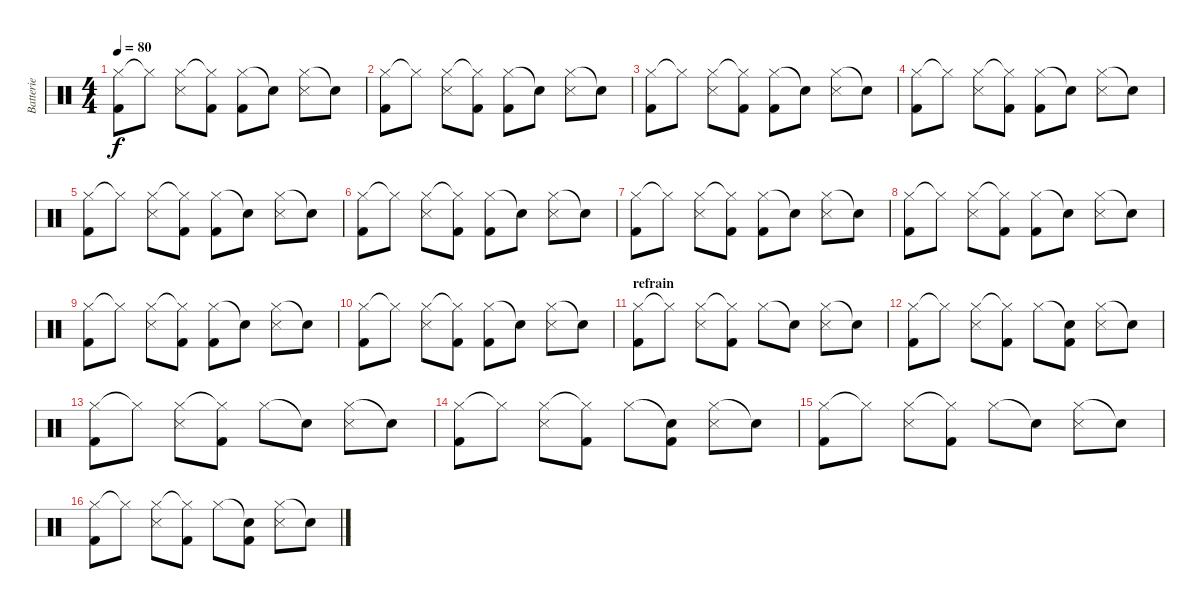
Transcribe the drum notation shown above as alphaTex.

\track ("Batterie" "Batterie") {instrument percussion}
\staff {score}
\articulation defaults
\ts (4 4)
\tempo 80
\clef neutral
\ks c
("Hi-Hat (closed)" "Kick (hit) 2").8{dy f} "Hi-Hat (closed)"{t}.8 ("Hi-Hat (closed)" "Snare (side stick) 3").8 ("Hi-Hat (closed)"{t} "Kick (hit) 2").8 ("Hi-Hat (closed)" "Kick (hit) 2").8 "Snare (hit)"{t}.8 ("Hi-Hat (closed)" "Snare (side stick) 3").8 "Snare (hit)"{t}.8 |
("Hi-Hat (closed)" "Kick (hit) 2").8 "Hi-Hat (closed)"{t}.8 ("Hi-Hat (closed)" "Snare (side stick) 3").8 ("Hi-Hat (closed)"{t} "Kick (hit) 2").8 ("Hi-Hat (closed)" "Kick (hit) 2").8 "Snare (hit)"{t}.8 ("Hi-Hat (closed)" "Snare (side stick) 3").8 "Snare (hit)"{t}.8 |
("Hi-Hat (closed)" "Kick (hit) 2").8 "Hi-Hat (closed)"{t}.8 ("Hi-Hat (closed)" "Snare (side stick) 3").8 ("Hi-Hat (closed)"{t} "Kick (hit) 2").8 ("Hi-Hat (closed)" "Kick (hit) 2").8 "Snare (hit)"{t}.8 ("Hi-Hat (closed)" "Snare (side stick) 3").8 "Snare (hit)"{t}.8 |
("Hi-Hat (closed)" "Kick (hit) 2").8 "Hi-Hat (closed)"{t}.8 ("Hi-Hat (closed)" "Snare (side stick) 3").8 ("Hi-Hat (closed)"{t} "Kick (hit) 2").8 ("Hi-Hat (closed)" "Kick (hit) 2").8 "Snare (hit)"{t}.8 ("Hi-Hat (closed)" "Snare (side stick) 3").8 "Snare (hit)"{t}.8 |
("Hi-Hat (closed)" "Kick (hit) 2").8 "Hi-Hat (closed)"{t}.8 ("Hi-Hat (closed)" "Snare (side stick) 3").8 ("Hi-Hat (closed)"{t} "Kick (hit) 2").8 ("Hi-Hat (closed)" "Kick (hit) 2").8 "Snare (hit)"{t}.8 ("Hi-Hat (closed)" "Snare (side stick) 3").8 "Snare (hit)"{t}.8 |
("Hi-Hat (closed)" "Kick (hit) 2").8 "Hi-Hat (closed)"{t}.8 ("Hi-Hat (closed)" "Snare (side stick) 3").8 ("Hi-Hat (closed)"{t} "Kick (hit) 2").8 ("Hi-Hat (closed)" "Kick (hit) 2").8 "Snare (hit)"{t}.8 ("Hi-Hat (closed)" "Snare (side stick) 3").8 "Snare (hit)"{t}.8 |
("Hi-Hat (closed)" "Kick (hit) 2").8 "Hi-Hat (closed)"{t}.8 ("Hi-Hat (closed)" "Snare (side stick) 3").8 ("Hi-Hat (closed)"{t} "Kick (hit) 2").8 ("Hi-Hat (closed)" "Kick (hit) 2").8 "Snare (hit)"{t}.8 ("Hi-Hat (closed)" "Snare (side stick) 3").8 "Snare (hit)"{t}.8 |
("Hi-Hat (closed)" "Kick (hit) 2").8 "Hi-Hat (closed)"{t}.8 ("Hi-Hat (closed)" "Snare (side stick) 3").8 ("Hi-Hat (closed)"{t} "Kick (hit) 2").8 ("Hi-Hat (closed)" "Kick (hit) 2").8 "Snare (hit)"{t}.8 ("Hi-Hat (closed)" "Snare (side stick) 3").8 "Snare (hit)"{t}.8 |
("Hi-Hat (closed)" "Kick (hit) 2").8 "Hi-Hat (closed)"{t}.8 ("Hi-Hat (closed)" "Snare (side stick) 3").8 ("Hi-Hat (closed)"{t} "Kick (hit) 2").8 ("Hi-Hat (closed)" "Kick (hit) 2").8 "Snare (hit)"{t}.8 ("Hi-Hat (closed)" "Snare (side stick) 3").8 "Snare (hit)"{t}.8 |
("Hi-Hat (closed)" "Kick (hit) 2").8 "Hi-Hat (closed)"{t}.8 ("Hi-Hat (closed)" "Snare (side stick) 3").8 ("Hi-Hat (closed)"{t} "Kick (hit) 2").8 ("Hi-Hat (closed)" "Kick (hit) 2").8 "Snare (hit)"{t}.8 ("Hi-Hat (closed)" "Snare (side stick) 3").8 "Snare (hit)"{t}.8 |
\section ("" "refrain")
("Hi-Hat (closed)" "Kick (hit) 2").8 "Hi-Hat (closed)"{t}.8 ("Hi-Hat (closed)" "Snare (side stick) 3").8 ("Hi-Hat (closed)"{t} "Kick (hit) 2").8 "Hi-Hat (closed)".8 "Snare (hit)"{t}.8 ("Hi-Hat (closed)" "Snare (side stick) 3").8 "Snare (hit)"{t}.8 |
("Hi-Hat (closed)" "Kick (hit) 2").8 "Hi-Hat (closed)"{t}.8 ("Hi-Hat (closed)" "Snare (side stick) 3").8 ("Hi-Hat (closed)"{t} "Kick (hit) 2").8 "Hi-Hat (closed)".8 ("Snare (hit)"{t} "Kick (hit) 2").8 ("Hi-Hat (closed)" "Snare (side stick) 3").8 "Snare (hit)"{t}.8 |
("Hi-Hat (closed)" "Kick (hit) 2").8 "Hi-Hat (closed)"{t}.8 ("Hi-Hat (closed)" "Snare (side stick) 3").8 ("Hi-Hat (closed)"{t} "Kick (hit) 2").8 "Hi-Hat (closed)".8 "Snare (hit)"{t}.8 ("Hi-Hat (closed)" "Snare (side stick) 3").8 "Snare (hit)"{t}.8 |
("Hi-Hat (closed)" "Kick (hit) 2").8 "Hi-Hat (closed)"{t}.8 ("Hi-Hat (closed)" "Snare (side stick) 3").8 ("Hi-Hat (closed)"{t} "Kick (hit) 2").8 "Hi-Hat (closed)".8 ("Snare (hit)"{t} "Kick (hit) 2").8 ("Hi-Hat (closed)" "Snare (side stick) 3").8 "Snare (hit)"{t}.8 |
("Hi-Hat (closed)" "Kick (hit) 2").8 "Hi-Hat (closed)"{t}.8 ("Hi-Hat (closed)" "Snare (side stick) 3").8 ("Hi-Hat (closed)"{t} "Kick (hit) 2").8 "Hi-Hat (closed)".8 "Snare (hit)"{t}.8 ("Hi-Hat (closed)" "Snare (side stick) 3").8 "Snare (hit)"{t}.8 |
("Hi-Hat (closed)" "Kick (hit) 2").8 "Hi-Hat (closed)"{t}.8 ("Hi-Hat (closed)" "Snare (side stick) 3").8 ("Hi-Hat (closed)"{t} "Kick (hit) 2").8 "Hi-Hat (closed)".8 ("Snare (hit)"{t} "Kick (hit) 2").8 ("Hi-Hat (closed)" "Snare (side stick) 3").8 "Snare (hit)"{t}.8
